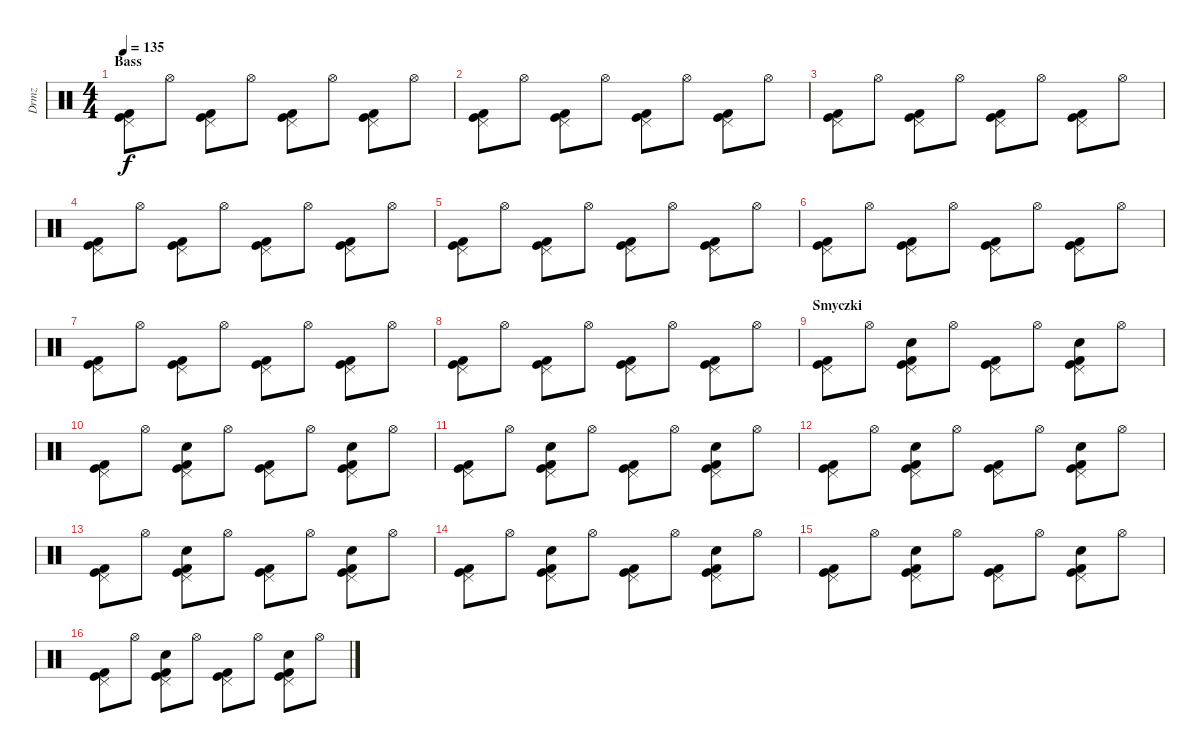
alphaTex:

\track ("Drmz" "Drmz") {instrument percussion}
\staff {score}
\articulation defaults
\ts (4 4)
\section ("" "Bass")
\tempo 135
\clef neutral
\ks c
("Kick (hit) 2" "Kick (hit)" "Pedal Hi-Hat (hit)").8{dy f} "Hi-Hat (open)".8 ("Kick (hit) 2" "Kick (hit)" "Pedal Hi-Hat (hit)").8 "Hi-Hat (open)".8 ("Kick (hit) 2" "Kick (hit)" "Pedal Hi-Hat (hit)").8 "Hi-Hat (open)".8 ("Kick (hit) 2" "Kick (hit)" "Pedal Hi-Hat (hit)").8 "Hi-Hat (open)".8 |
("Kick (hit) 2" "Kick (hit)" "Pedal Hi-Hat (hit)").8 "Hi-Hat (open)".8 ("Kick (hit) 2" "Kick (hit)" "Pedal Hi-Hat (hit)").8 "Hi-Hat (open)".8 ("Kick (hit) 2" "Kick (hit)" "Pedal Hi-Hat (hit)").8 "Hi-Hat (open)".8 ("Kick (hit) 2" "Kick (hit)" "Pedal Hi-Hat (hit)").8 "Hi-Hat (open)".8 |
("Kick (hit) 2" "Kick (hit)" "Pedal Hi-Hat (hit)").8 "Hi-Hat (open)".8 ("Kick (hit) 2" "Kick (hit)" "Pedal Hi-Hat (hit)").8 "Hi-Hat (open)".8 ("Kick (hit) 2" "Kick (hit)" "Pedal Hi-Hat (hit)").8 "Hi-Hat (open)".8 ("Kick (hit) 2" "Kick (hit)" "Pedal Hi-Hat (hit)").8 "Hi-Hat (open)".8 |
("Kick (hit) 2" "Kick (hit)" "Pedal Hi-Hat (hit)").8 "Hi-Hat (open)".8 ("Kick (hit) 2" "Kick (hit)" "Pedal Hi-Hat (hit)").8 "Hi-Hat (open)".8 ("Kick (hit) 2" "Kick (hit)" "Pedal Hi-Hat (hit)").8 "Hi-Hat (open)".8 ("Kick (hit) 2" "Kick (hit)" "Pedal Hi-Hat (hit)").8 "Hi-Hat (open)".8 |
("Kick (hit) 2" "Kick (hit)" "Pedal Hi-Hat (hit)").8 "Hi-Hat (open)".8 ("Kick (hit) 2" "Kick (hit)" "Pedal Hi-Hat (hit)").8 "Hi-Hat (open)".8 ("Kick (hit) 2" "Kick (hit)" "Pedal Hi-Hat (hit)").8 "Hi-Hat (open)".8 ("Kick (hit) 2" "Kick (hit)" "Pedal Hi-Hat (hit)").8 "Hi-Hat (open)".8 |
("Kick (hit) 2" "Kick (hit)" "Pedal Hi-Hat (hit)").8 "Hi-Hat (open)".8 ("Kick (hit) 2" "Kick (hit)" "Pedal Hi-Hat (hit)").8 "Hi-Hat (open)".8 ("Kick (hit) 2" "Kick (hit)" "Pedal Hi-Hat (hit)").8 "Hi-Hat (open)".8 ("Kick (hit) 2" "Kick (hit)" "Pedal Hi-Hat (hit)").8 "Hi-Hat (open)".8 |
("Kick (hit) 2" "Kick (hit)" "Pedal Hi-Hat (hit)").8 "Hi-Hat (open)".8 ("Kick (hit) 2" "Kick (hit)" "Pedal Hi-Hat (hit)").8 "Hi-Hat (open)".8 ("Kick (hit) 2" "Kick (hit)" "Pedal Hi-Hat (hit)").8 "Hi-Hat (open)".8 ("Kick (hit) 2" "Kick (hit)" "Pedal Hi-Hat (hit)").8 "Hi-Hat (open)".8 |
("Kick (hit) 2" "Kick (hit)" "Pedal Hi-Hat (hit)").8 "Hi-Hat (open)".8 ("Kick (hit) 2" "Kick (hit)" "Pedal Hi-Hat (hit)").8 "Hi-Hat (open)".8 ("Kick (hit) 2" "Kick (hit)" "Pedal Hi-Hat (hit)").8 "Hi-Hat (open)".8 ("Kick (hit) 2" "Kick (hit)" "Pedal Hi-Hat (hit)").8 "Hi-Hat (open)".8 |
\section ("" "Smyczki")
("Kick (hit) 2" "Kick (hit)" "Pedal Hi-Hat (hit)").8 "Hi-Hat (open)".8 ("Kick (hit) 2" "Kick (hit)" "Pedal Hi-Hat (hit)" "Hand Clap (hit)").8 "Hi-Hat (open)".8 ("Kick (hit) 2" "Kick (hit)" "Pedal Hi-Hat (hit)").8 "Hi-Hat (open)".8 ("Kick (hit) 2" "Kick (hit)" "Pedal Hi-Hat (hit)" "Hand Clap (hit)").8 "Hi-Hat (open)".8 |
("Kick (hit) 2" "Kick (hit)" "Pedal Hi-Hat (hit)").8 "Hi-Hat (open)".8 ("Kick (hit) 2" "Kick (hit)" "Pedal Hi-Hat (hit)" "Hand Clap (hit)").8 "Hi-Hat (open)".8 ("Kick (hit) 2" "Kick (hit)" "Pedal Hi-Hat (hit)").8 "Hi-Hat (open)".8 ("Kick (hit) 2" "Kick (hit)" "Pedal Hi-Hat (hit)" "Hand Clap (hit)").8 "Hi-Hat (open)".8 |
("Kick (hit) 2" "Kick (hit)" "Pedal Hi-Hat (hit)").8 "Hi-Hat (open)".8 ("Kick (hit) 2" "Kick (hit)" "Pedal Hi-Hat (hit)" "Hand Clap (hit)").8 "Hi-Hat (open)".8 ("Kick (hit) 2" "Kick (hit)" "Pedal Hi-Hat (hit)").8 "Hi-Hat (open)".8 ("Kick (hit) 2" "Kick (hit)" "Pedal Hi-Hat (hit)" "Hand Clap (hit)").8 "Hi-Hat (open)".8 |
("Kick (hit) 2" "Kick (hit)" "Pedal Hi-Hat (hit)").8 "Hi-Hat (open)".8 ("Kick (hit) 2" "Kick (hit)" "Pedal Hi-Hat (hit)" "Hand Clap (hit)").8 "Hi-Hat (open)".8 ("Kick (hit) 2" "Kick (hit)" "Pedal Hi-Hat (hit)").8 "Hi-Hat (open)".8 ("Kick (hit) 2" "Kick (hit)" "Pedal Hi-Hat (hit)" "Hand Clap (hit)").8 "Hi-Hat (open)".8 |
("Kick (hit) 2" "Kick (hit)" "Pedal Hi-Hat (hit)").8 "Hi-Hat (open)".8 ("Kick (hit) 2" "Kick (hit)" "Pedal Hi-Hat (hit)" "Hand Clap (hit)").8 "Hi-Hat (open)".8 ("Kick (hit) 2" "Kick (hit)" "Pedal Hi-Hat (hit)").8 "Hi-Hat (open)".8 ("Kick (hit) 2" "Kick (hit)" "Pedal Hi-Hat (hit)" "Hand Clap (hit)").8 "Hi-Hat (open)".8 |
("Kick (hit) 2" "Kick (hit)" "Pedal Hi-Hat (hit)").8 "Hi-Hat (open)".8 ("Kick (hit) 2" "Kick (hit)" "Pedal Hi-Hat (hit)" "Hand Clap (hit)").8 "Hi-Hat (open)".8 ("Kick (hit) 2" "Kick (hit)" "Pedal Hi-Hat (hit)").8 "Hi-Hat (open)".8 ("Kick (hit) 2" "Kick (hit)" "Pedal Hi-Hat (hit)" "Hand Clap (hit)").8 "Hi-Hat (open)".8 |
("Kick (hit) 2" "Kick (hit)" "Pedal Hi-Hat (hit)").8 "Hi-Hat (open)".8 ("Kick (hit) 2" "Kick (hit)" "Pedal Hi-Hat (hit)" "Hand Clap (hit)").8 "Hi-Hat (open)".8 ("Kick (hit) 2" "Kick (hit)" "Pedal Hi-Hat (hit)").8 "Hi-Hat (open)".8 ("Kick (hit) 2" "Kick (hit)" "Pedal Hi-Hat (hit)" "Hand Clap (hit)").8 "Hi-Hat (open)".8 |
("Kick (hit) 2" "Kick (hit)" "Pedal Hi-Hat (hit)").8 "Hi-Hat (open)".8 ("Kick (hit) 2" "Kick (hit)" "Pedal Hi-Hat (hit)" "Hand Clap (hit)").8 "Hi-Hat (open)".8 ("Kick (hit) 2" "Kick (hit)" "Pedal Hi-Hat (hit)").8 "Hi-Hat (open)".8 ("Kick (hit) 2" "Kick (hit)" "Pedal Hi-Hat (hit)" "Hand Clap (hit)").8 "Hi-Hat (open)".8
